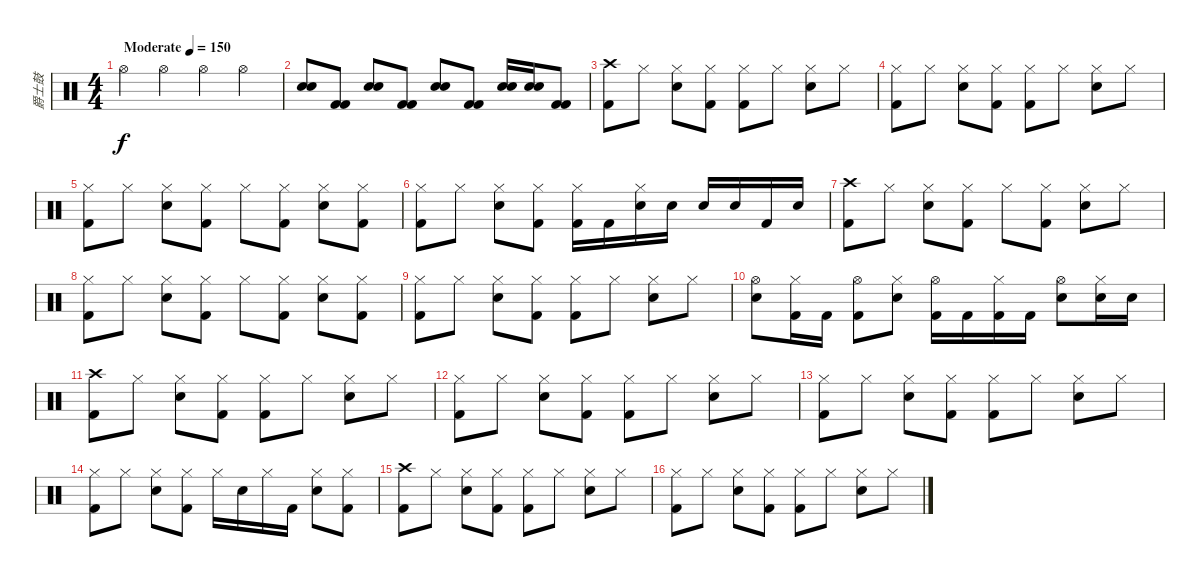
\track ("爵士鼓" "爵士鼓") {instrument percussion}
\staff {score}
\articulation defaults
\ts (4 4)
\tempo (150 "Moderate")
\clef neutral
\ks c "Hi-Hat (open)".4{dy f} "Hi-Hat (open)".4 "Hi-Hat (open)".4 "Hi-Hat (open)".4
|
("Snare (hit) 2" "Snare (hit) 2").8 ("Kick (hit) 2" "Kick (hit) 2").8 ("Snare (hit) 2" "Snare (hit) 2").8 ("Kick (hit) 2" "Kick (hit) 2").8 ("Snare (hit) 2" "Snare (hit) 2").8 ("Kick (hit) 2" "Kick (hit) 2").8 ("Snare (hit) 2" "Snare (hit) 2").16 ("Snare (hit) 2" "Snare (hit) 2").16 ("Kick (hit) 2" "Kick (hit) 2").8 |
("Crash high (hit)" "Kick (hit) 2").8 "Hi-Hat (closed)".8 ("Hi-Hat (closed)" "Electric Snare (hit)").8 ("Hi-Hat (closed)" "Kick (hit) 2").8 ("Hi-Hat (closed)" "Kick (hit) 2").8 "Hi-Hat (closed)".8 ("Hi-Hat (closed)" "Electric Snare (hit)").8 "Hi-Hat (closed)".8 |
("Hi-Hat (closed)" "Kick (hit) 2").8 "Hi-Hat (closed)".8 ("Hi-Hat (closed)" "Electric Snare (hit)").8 ("Hi-Hat (closed)" "Kick (hit) 2").8 ("Hi-Hat (closed)" "Kick (hit) 2").8 "Hi-Hat (closed)".8 ("Hi-Hat (closed)" "Electric Snare (hit)").8 "Hi-Hat (closed)".8 |
("Hi-Hat (closed)" "Kick (hit) 2").8 "Hi-Hat (closed)".8 ("Hi-Hat (closed)" "Electric Snare (hit)").8 ("Hi-Hat (closed)" "Kick (hit) 2").8 "Hi-Hat (closed)".8 ("Hi-Hat (closed)" "Kick (hit) 2").8 ("Hi-Hat (closed)" "Electric Snare (hit)").8 ("Hi-Hat (closed)" "Kick (hit) 2").8 |
("Hi-Hat (closed)" "Kick (hit) 2").8 "Hi-Hat (closed)".8 ("Hi-Hat (closed)" "Electric Snare (hit)").8 ("Hi-Hat (closed)" "Kick (hit) 2").8 ("Hi-Hat (closed)" "Kick (hit) 2").16 "Kick (hit) 2".16 ("Hi-Hat (closed)" "Electric Snare (hit)").16 "Electric Snare (hit)".16 "Electric Snare (hit)".16 "Electric Snare (hit)".16 "Kick (hit) 2".16 "Electric Snare (hit)".16 |
("Crash high (hit)" "Kick (hit) 2").8 "Hi-Hat (closed)".8 ("Hi-Hat (closed)" "Electric Snare (hit)").8 ("Hi-Hat (closed)" "Kick (hit) 2").8 "Hi-Hat (closed)".8 ("Hi-Hat (closed)" "Kick (hit) 2").8 ("Hi-Hat (closed)" "Electric Snare (hit)").8 "Hi-Hat (closed)".8 |
("Hi-Hat (closed)" "Kick (hit) 2").8 "Hi-Hat (closed)".8 ("Hi-Hat (closed)" "Electric Snare (hit)").8 ("Hi-Hat (closed)" "Kick (hit) 2").8 "Hi-Hat (closed)".8 ("Hi-Hat (closed)" "Kick (hit) 2").8 ("Hi-Hat (closed)" "Electric Snare (hit)").8 ("Hi-Hat (closed)" "Kick (hit) 2").8 |
("Hi-Hat (closed)" "Kick (hit) 2").8 "Hi-Hat (closed)".8 ("Hi-Hat (closed)" "Electric Snare (hit)").8 ("Hi-Hat (closed)" "Kick (hit) 2").8 ("Hi-Hat (closed)" "Kick (hit) 2").8 "Hi-Hat (closed)".8 ("Hi-Hat (closed)" "Electric Snare (hit)").8 "Hi-Hat (closed)".8 |
("Hi-Hat (open)" "Electric Snare (hit)").8 ("Hi-Hat (closed)" "Kick (hit) 2").16 "Kick (hit) 2".16 ("Hi-Hat (open)" "Kick (hit) 2").8 ("Hi-Hat (closed)" "Electric Snare (hit)").8 ("Hi-Hat (open)" "Kick (hit) 2").16 "Kick (hit) 2".16 ("Hi-Hat (closed)" "Kick (hit) 2").16 "Kick (hit) 2".16 ("Hi-Hat (open)" "Electric Snare (hit)").8 ("Hi-Hat (closed)" "Electric Snare (hit)").16 "Electric Snare (hit)".16 |
("Crash high (hit)" "Kick (hit) 2").8 "Hi-Hat (closed)".8 ("Hi-Hat (closed)" "Electric Snare (hit)").8 ("Hi-Hat (closed)" "Kick (hit) 2").8 ("Hi-Hat (closed)" "Kick (hit) 2").8 "Hi-Hat (closed)".8 ("Hi-Hat (closed)" "Electric Snare (hit)").8 "Hi-Hat (closed)".8 |
("Hi-Hat (closed)" "Kick (hit) 2").8 "Hi-Hat (closed)".8 ("Hi-Hat (closed)" "Electric Snare (hit)").8 ("Hi-Hat (closed)" "Kick (hit) 2").8 ("Hi-Hat (closed)" "Kick (hit) 2").8 "Hi-Hat (closed)".8 ("Hi-Hat (closed)" "Electric Snare (hit)").8 "Hi-Hat (closed)".8 |
("Hi-Hat (closed)" "Kick (hit) 2").8 "Hi-Hat (closed)".8 ("Hi-Hat (closed)" "Electric Snare (hit)").8 ("Hi-Hat (closed)" "Kick (hit) 2").8 ("Hi-Hat (closed)" "Kick (hit) 2").8 "Hi-Hat (closed)".8 ("Hi-Hat (closed)" "Electric Snare (hit)").8 "Hi-Hat (closed)".8 |
("Hi-Hat (closed)" "Kick (hit) 2").8 "Hi-Hat (closed)".8 ("Hi-Hat (closed)" "Electric Snare (hit)").8 ("Hi-Hat (closed)" "Kick (hit) 2").8 "Hi-Hat (closed)".16 "Electric Snare (hit)".16 "Hi-Hat (closed)".16 "Kick (hit) 2".16 ("Hi-Hat (closed)" "Electric Snare (hit)").8 ("Hi-Hat (closed)" "Kick (hit) 2").8 |
("Crash high (hit)" "Kick (hit) 2").8 "Hi-Hat (closed)".8 ("Hi-Hat (closed)" "Electric Snare (hit)").8 ("Hi-Hat (closed)" "Kick (hit) 2").8 ("Hi-Hat (closed)" "Kick (hit) 2").8 "Hi-Hat (closed)".8 ("Hi-Hat (closed)" "Electric Snare (hit)").8 "Hi-Hat (closed)".8 |
("Hi-Hat (closed)" "Kick (hit) 2").8 "Hi-Hat (closed)".8 ("Hi-Hat (closed)" "Electric Snare (hit)").8 ("Hi-Hat (closed)" "Kick (hit) 2").8 ("Hi-Hat (closed)" "Kick (hit) 2").8 "Hi-Hat (closed)".8 ("Hi-Hat (closed)" "Electric Snare (hit)").8 "Hi-Hat (closed)".8
